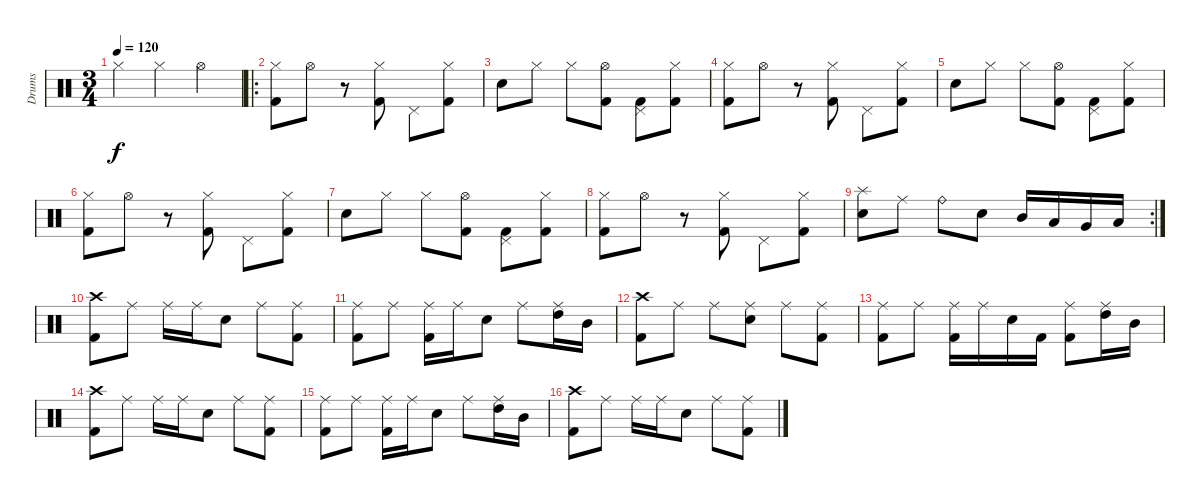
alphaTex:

\track ("Drums" "Drums") {instrument percussion}
\staff {score}
\articulation defaults
\ts (3 4)
\tempo 120
\clef neutral
\ks c "Hi-Hat (closed)".4{dy f} "Hi-Hat (closed)".4 "Hi-Hat (open)".4
|
\ro
("Hi-Hat (closed)" "Kick (hit) 2").8 "Hi-Hat (open)".8 r.8 ("Hi-Hat (closed)" "Kick (hit) 2").8 "Pedal Hi-Hat (hit)".8 ("Hi-Hat (closed)" "Kick (hit) 2").8 |
"Snare (hit) 2".8 "Hi-Hat (closed)".8 "Hi-Hat (closed)".8 ("Hi-Hat (open)" "Kick (hit) 2").8 ("Pedal Hi-Hat (hit)" "Kick (hit) 2").8 ("Hi-Hat (closed)" "Kick (hit) 2").8 |
("Hi-Hat (closed)" "Kick (hit) 2").8 "Hi-Hat (open)".8 r.8 ("Hi-Hat (closed)" "Kick (hit) 2").8 "Pedal Hi-Hat (hit)".8 ("Hi-Hat (closed)" "Kick (hit) 2").8 |
"Snare (hit) 2".8 "Hi-Hat (closed)".8 "Hi-Hat (closed)".8 ("Hi-Hat (open)" "Kick (hit) 2").8 ("Pedal Hi-Hat (hit)" "Kick (hit) 2").8 ("Hi-Hat (closed)" "Kick (hit) 2").8 |
("Hi-Hat (closed)" "Kick (hit) 2").8 "Hi-Hat (open)".8 r.8 ("Hi-Hat (closed)" "Kick (hit) 2").8 "Pedal Hi-Hat (hit)".8 ("Hi-Hat (closed)" "Kick (hit) 2").8 |
"Snare (hit) 2".8 "Hi-Hat (closed)".8 "Hi-Hat (closed)".8 ("Hi-Hat (open)" "Kick (hit) 2").8 ("Pedal Hi-Hat (hit)" "Kick (hit) 2").8 ("Hi-Hat (closed)" "Kick (hit) 2").8 |
("Hi-Hat (closed)" "Kick (hit) 2").8 "Hi-Hat (open)".8 r.8 ("Hi-Hat (closed)" "Kick (hit) 2").8 "Pedal Hi-Hat (hit)".8 ("Hi-Hat (closed)" "Kick (hit) 2").8 |
\rc 2
("Splash (hit)" "Snare (hit) 2").8 "Ride (middle)".8 "Ride (bell)".8 "Snare (hit) 2".8 "Mid Tom (hit)".16 "Low Tom (hit)".16 "Very Low Tom (hit)".16 "Low Floor Tom (hit)".16 |
("Crash high (hit)" "Kick (hit) 2").8 "Ride (middle)".8 "Ride (middle)".16 "Ride (middle)".16 "Snare (hit) 2".8 "Ride (middle)".8 ("Ride (middle)" "Kick (hit) 2").8 |
("Ride (middle)" "Kick (hit) 2").8 "Ride (middle)".8 ("Ride (middle)" "Kick (hit) 2").16 "Ride (middle)".16 "Snare (hit) 2".8 "Ride (middle)".8 ("Ride (middle)" "High Tom (hit)").16 "Mid Tom (hit)".16 |
("Crash high (hit)" "Kick (hit) 2").8 "Ride (middle)".8 "Ride (middle)".8 ("Ride (middle)" "Snare (hit) 2").8 "Ride (middle)".8 ("Ride (middle)" "Kick (hit) 2").8 |
("Ride (middle)" "Kick (hit) 2").8 "Ride (middle)".8 ("Ride (middle)" "Kick (hit) 2").16 "Ride (middle)".16 "Snare (hit) 2".16 "Kick (hit) 2".16 ("Ride (middle)" "Kick (hit) 2").8 ("Ride (middle)" "High Tom (hit)").16 "Mid Tom (hit)".16 |
("Crash high (hit)" "Kick (hit) 2").8 "Ride (middle)".8 "Ride (middle)".16 "Ride (middle)".16 "Snare (hit) 2".8 "Ride (middle)".8 ("Ride (middle)" "Kick (hit) 2").8 |
("Ride (middle)" "Kick (hit) 2").8 "Ride (middle)".8 ("Ride (middle)" "Kick (hit) 2").16 "Ride (middle)".16 "Snare (hit) 2".8 "Ride (middle)".8 ("Ride (middle)" "High Tom (hit)").16 "Mid Tom (hit)".16 |
("Crash high (hit)" "Kick (hit) 2").8 "Ride (middle)".8 "Ride (middle)".16 "Ride (middle)".16 "Snare (hit) 2".8 "Ride (middle)".8 ("Ride (middle)" "Kick (hit) 2").8
